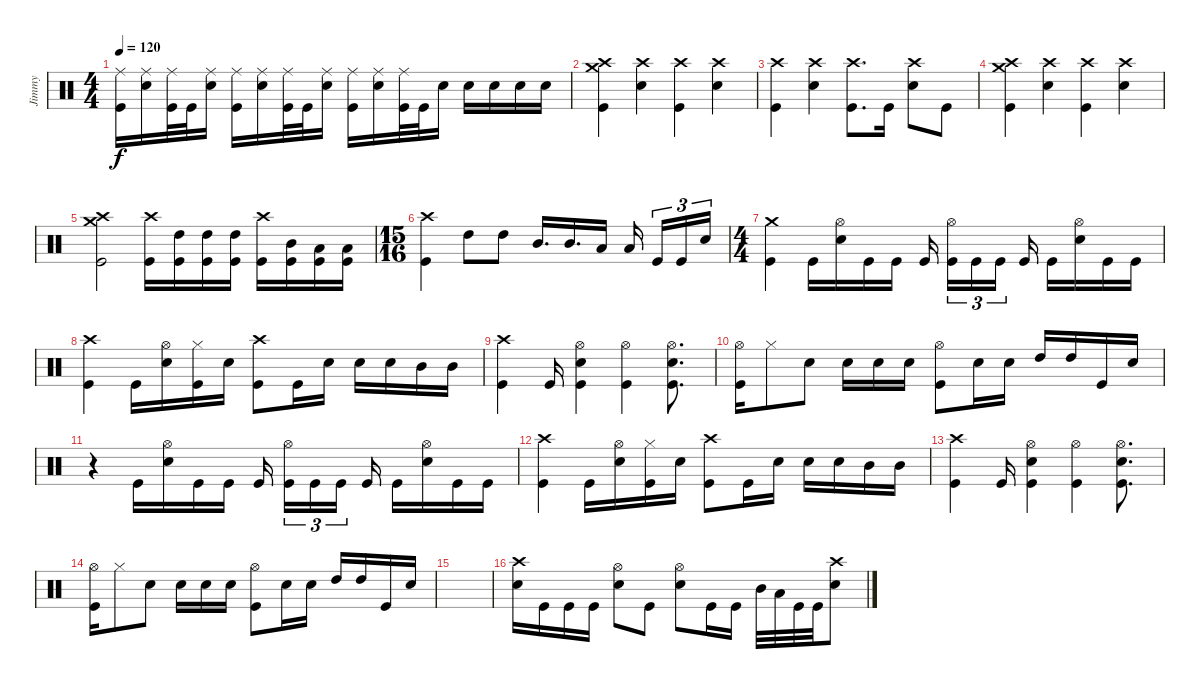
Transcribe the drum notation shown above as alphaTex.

\track ("Jimmy" "Jimmy") {instrument percussion}
\staff {score}
\articulation defaults
\ts (4 4)
\tempo 120
\clef neutral
\ks c
("Kick (hit)" "Ride (middle)").16{dy f} ("Snare (hit) 2" "Ride (middle)").16 ("Kick (hit)" "Ride (middle)").32 "Kick (hit)".32 ("Snare (hit) 2" "Ride (middle)").16 ("Kick (hit)" "Ride (middle)").16 ("Snare (hit) 2" "Ride (middle)").16 ("Kick (hit)" "Ride (middle)").32 "Kick (hit)".32 ("Snare (hit) 2" "Ride (middle)").16 ("Kick (hit)" "Ride (middle)").16 ("Snare (hit) 2" "Ride (middle)").16 ("Kick (hit)" "Ride (middle)").32 "Kick (hit)".32 "Snare (hit) 2".16 "Snare (hit) 2".16 "Snare (hit) 2".16 "Snare (hit) 2".16 "Snare (hit) 2".16 |
("Kick (hit)" "Crash medium (hit)" "Crash high (hit)").4 ("Snare (hit) 2" "Crash high (hit)").4 ("Kick (hit)" "Crash high (hit)").4 ("Snare (hit) 2" "Crash high (hit)").4 |
("Kick (hit)" "Crash high (hit)").4 ("Snare (hit) 2" "Crash high (hit)").4 ("Kick (hit)" "Crash high (hit)").8{d} "Kick (hit)".16 ("Snare (hit) 2" "Crash high (hit)").8 "Kick (hit)".8 |
("Kick (hit)" "Crash medium (hit)" "Crash high (hit)").4 ("Snare (hit) 2" "Crash high (hit)").4 ("Kick (hit)" "Crash high (hit)").4 ("Snare (hit) 2" "Crash high (hit)").4 |
("Kick (hit)" "Crash high (hit)" "Crash medium (hit)").2 ("Kick (hit)" "Crash high (hit)").16 ("Kick (hit)" "High Tom (hit)").16 ("Kick (hit)" "High Tom (hit)").16 ("Kick (hit)" "High Tom (hit)").16 ("Kick (hit)" "Crash high (hit)").16 ("Mid Tom (hit)" "Kick (hit)").16 ("Kick (hit)" "Low Tom (hit)").16 ("Kick (hit)" "Low Tom (hit)").16 |
\ts (15 16)
("Kick (hit)" "Crash high (hit)").4 "High Tom (hit)".8 "High Tom (hit)".8 "Mid Tom (hit)".16{d} "Mid Tom (hit)".16{d} "Low Tom (hit)".16 "Low Tom (hit)".16{beam splitsecondary} "Kick (hit)".16{tu (3 2)} "Kick (hit)".16{tu (3 2)} "Snare (hit) 2".16{tu (3 2)} |
\ts (4 4)
("Kick (hit)" "Crash medium (hit)").4 "Kick (hit)".16 ("Snare (hit) 2" "Hi-Hat (open)").16 "Kick (hit)".16 "Kick (hit)".16 "Kick (hit)".16{beam splitsecondary} ("Kick (hit)" "Hi-Hat (open)").16{tu (3 2)} "Kick (hit)".16{tu (3 2)} "Kick (hit)".16{tu (3 2) beam splitsecondary} "Kick (hit)".16 "Kick (hit)".16 ("Snare (hit) 2" "Hi-Hat (open)").16 "Kick (hit)".16 "Kick (hit)".16 |
("Kick (hit)" "Crash high (hit)").4 "Kick (hit)".16 ("Snare (hit) 2" "Hi-Hat (open)").16 ("Kick (hit)" "Hi-Hat (closed)").16 "Snare (hit) 2".16 ("Kick (hit)" "Crash high (hit)").8 "Kick (hit)".16 "Snare (hit) 2".16 "Snare (hit) 2".16 "Snare (hit) 2".16 "Mid Tom (hit)".16 "Mid Tom (hit)".16 |
("Crash high (hit)" "Kick (hit)").4 "Kick (hit)".16 ("Hi-Hat (open)" "Snare (hit) 2" "Kick (hit)").4 ("Hi-Hat (open)" "Kick (hit)").4 ("Snare (hit) 2" "Hi-Hat (open)" "Kick (hit)").8{d} |
("Hi-Hat (open)" "Kick (hit)").16 "Hi-Hat (closed)".8 "Snare (hit) 2".8 "Snare (hit) 2".16 "Snare (hit) 2".16 "Snare (hit) 2".16 ("Hi-Hat (open)" "Kick (hit)").8 "Snare (hit) 2".16 "Snare (hit) 2".16 "High Tom (hit)".16 "High Tom (hit)".16 "Kick (hit)".16 "Snare (hit) 2".16 |
r.4 "Kick (hit)".16 ("Snare (hit) 2" "Hi-Hat (open)").16 "Kick (hit)".16 "Kick (hit)".16 "Kick (hit)".16{beam splitsecondary} ("Kick (hit)" "Hi-Hat (open)").16{tu (3 2)} "Kick (hit)".16{tu (3 2)} "Kick (hit)".16{tu (3 2) beam splitsecondary} "Kick (hit)".16 "Kick (hit)".16 ("Snare (hit) 2" "Hi-Hat (open)").16 "Kick (hit)".16 "Kick (hit)".16 |
("Kick (hit)" "Crash high (hit)").4 "Kick (hit)".16 ("Snare (hit) 2" "Hi-Hat (open)").16 ("Kick (hit)" "Hi-Hat (closed)").16 "Snare (hit) 2".16 ("Kick (hit)" "Crash high (hit)").8 "Kick (hit)".16 "Snare (hit) 2".16 "Snare (hit) 2".16 "Snare (hit) 2".16 "Mid Tom (hit)".16 "Mid Tom (hit)".16 |
("Crash high (hit)" "Kick (hit)").4 "Kick (hit)".16 ("Hi-Hat (open)" "Snare (hit) 2" "Kick (hit)").4 ("Hi-Hat (open)" "Kick (hit)").4 ("Snare (hit) 2" "Hi-Hat (open)" "Kick (hit)").8{d} |
("Hi-Hat (open)" "Kick (hit)").16 "Hi-Hat (closed)".8 "Snare (hit) 2".8 "Snare (hit) 2".16 "Snare (hit) 2".16 "Snare (hit) 2".16 ("Hi-Hat (open)" "Kick (hit)").8 "Snare (hit) 2".16 "Snare (hit) 2".16 "High Tom (hit)".16 "High Tom (hit)".16 "Kick (hit)".16 "Snare (hit) 2".16 |
|
("Snare (hit) 2" "Crash high (hit)").16 "Kick (hit)".16 "Kick (hit)".16 "Kick (hit)".16 ("Snare (hit) 2" "Hi-Hat (open)").8 "Kick (hit)".8 ("Snare (hit) 2" "Hi-Hat (open)").8 "Kick (hit)".16 "Kick (hit)".16 "Mid Tom (hit)".32 "Low Tom (hit)".32 "Kick (hit)".32 "Kick (hit)".32 ("Snare (hit) 2" "Crash high (hit)").8
